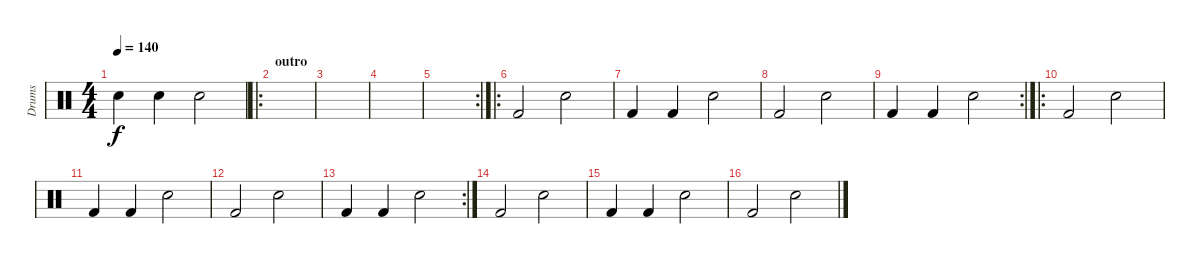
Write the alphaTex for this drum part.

\track ("Drums" "Drums") {instrument percussion}
\staff {score}
\articulation defaults
\ts (4 4)
\tempo 140
\clef neutral
\ks c "Snare (hit) 2".4{dy f} "Snare (hit) 2".4 "Snare (hit) 2".2
|
\ro
\section ("" "outro")
|
|
|
\rc 2
|
\ro "Kick (hit) 2".2 "Snare (hit) 2".2
|
"Kick (hit) 2".4 "Kick (hit) 2".4 "Snare (hit) 2".2 |
"Kick (hit) 2".2 "Snare (hit) 2".2 |
\rc 2 "Kick (hit) 2".4 "Kick (hit) 2".4 "Snare (hit) 2".2
|
\ro "Kick (hit) 2".2 "Snare (hit) 2".2
|
"Kick (hit) 2".4 "Kick (hit) 2".4 "Snare (hit) 2".2 |
"Kick (hit) 2".2 "Snare (hit) 2".2 |
\rc 2 "Kick (hit) 2".4 "Kick (hit) 2".4 "Snare (hit) 2".2
|
"Kick (hit) 2".2 "Snare (hit) 2".2 |
"Kick (hit) 2".4 "Kick (hit) 2".4 "Snare (hit) 2".2 |
"Kick (hit) 2".2 "Snare (hit) 2".2
